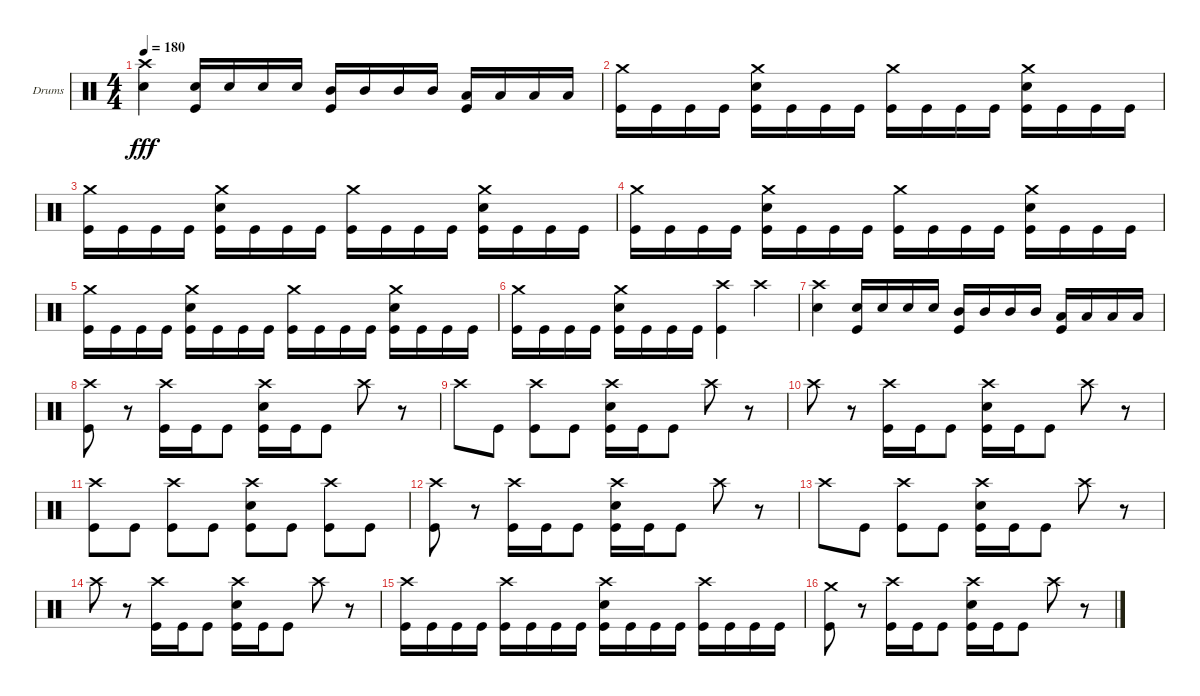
\bracketExtendMode groupsimilarinstruments
\firstSystemTrackNameOrientation horizontal
\otherSystemsTrackNameOrientation horizontal
\track ("Drumkit" "Drums") {instrument percussion}
\staff {score}
\articulation defaults
\ts (4 4)
\tempo 180
\clef neutral
\ks c
("Crash high (hit)" "Snare (hit) 2").4{dy fff} ("Snare (hit) 2" "Kick (hit)").16 "Snare (hit) 2".16 "Snare (hit) 2".16 "Snare (hit) 2".16 ("Mid Tom (hit)" "Kick (hit)").16 "Mid Tom (hit)".16 "Mid Tom (hit)".16 "Mid Tom (hit)".16 ("Low Tom (hit)" "Kick (hit)").16 "Low Tom (hit)".16 "Low Tom (hit)".16 "Low Tom (hit)".16 |
("Crash medium (hit)" "Kick (hit)").16 "Kick (hit)".16 "Kick (hit)".16 "Kick (hit)".16 ("Crash medium (hit)" "Snare (hit) 2" "Kick (hit)").16 "Kick (hit)".16 "Kick (hit)".16 "Kick (hit)".16 ("Crash medium (hit)" "Kick (hit)").16 "Kick (hit)".16 "Kick (hit)".16 "Kick (hit)".16 ("Crash medium (hit)" "Snare (hit) 2" "Kick (hit)").16 "Kick (hit)".16 "Kick (hit)".16 "Kick (hit)".16 |
("Crash medium (hit)" "Kick (hit)").16 "Kick (hit)".16 "Kick (hit)".16 "Kick (hit)".16 ("Crash medium (hit)" "Snare (hit) 2" "Kick (hit)").16 "Kick (hit)".16 "Kick (hit)".16 "Kick (hit)".16 ("Crash medium (hit)" "Kick (hit)").16 "Kick (hit)".16 "Kick (hit)".16 "Kick (hit)".16 ("Crash medium (hit)" "Snare (hit) 2" "Kick (hit)").16 "Kick (hit)".16 "Kick (hit)".16 "Kick (hit)".16 |
("Crash medium (hit)" "Kick (hit)").16 "Kick (hit)".16 "Kick (hit)".16 "Kick (hit)".16 ("Crash medium (hit)" "Snare (hit) 2" "Kick (hit)").16 "Kick (hit)".16 "Kick (hit)".16 "Kick (hit)".16 ("Crash medium (hit)" "Kick (hit)").16 "Kick (hit)".16 "Kick (hit)".16 "Kick (hit)".16 ("Crash medium (hit)" "Snare (hit) 2" "Kick (hit)").16 "Kick (hit)".16 "Kick (hit)".16 "Kick (hit)".16 |
("Crash medium (hit)" "Kick (hit)").16 "Kick (hit)".16 "Kick (hit)".16 "Kick (hit)".16 ("Crash medium (hit)" "Snare (hit) 2" "Kick (hit)").16 "Kick (hit)".16 "Kick (hit)".16 "Kick (hit)".16 ("Crash medium (hit)" "Kick (hit)").16 "Kick (hit)".16 "Kick (hit)".16 "Kick (hit)".16 ("Crash medium (hit)" "Snare (hit) 2" "Kick (hit)").16 "Kick (hit)".16 "Kick (hit)".16 "Kick (hit)".16 |
("Crash medium (hit)" "Kick (hit)").16 "Kick (hit)".16 "Kick (hit)".16 "Kick (hit)".16 ("Crash medium (hit)" "Snare (hit) 2" "Kick (hit)").16 "Kick (hit)".16 "Kick (hit)".16 "Kick (hit)".16 ("Crash high (hit)" "Kick (hit)").4 "Crash high (hit)".4 |
("Crash high (hit)" "Snare (hit) 2").4 ("Snare (hit) 2" "Kick (hit)").16 "Snare (hit) 2".16 "Snare (hit) 2".16 "Snare (hit) 2".16 ("Mid Tom (hit)" "Kick (hit)").16 "Mid Tom (hit)".16 "Mid Tom (hit)".16 "Mid Tom (hit)".16 ("Low Tom (hit)" "Kick (hit)").16 "Low Tom (hit)".16 "Low Tom (hit)".16 "Low Tom (hit)".16 |
("Crash high (hit)" "Kick (hit)").8 r.8 ("Crash high (hit)" "Kick (hit)").16 "Kick (hit)".16 "Kick (hit)".8 ("Crash high (hit)" "Snare (hit) 2" "Kick (hit)").16 "Kick (hit)".16 "Kick (hit)".8 "Crash high (hit)".8 r.8 |
"Crash high (hit)".8 "Kick (hit)".8 ("Crash high (hit)" "Kick (hit)").8 "Kick (hit)".8 ("Crash high (hit)" "Snare (hit) 2" "Kick (hit)").16 "Kick (hit)".16 "Kick (hit)".8 "Crash high (hit)".8 r.8 |
"Crash high (hit)".8 r.8 ("Crash high (hit)" "Kick (hit)").16 "Kick (hit)".16 "Kick (hit)".8 ("Crash high (hit)" "Snare (hit) 2" "Kick (hit)").16 "Kick (hit)".16 "Kick (hit)".8 "Crash high (hit)".8 r.8 |
("Crash high (hit)" "Kick (hit)").8 "Kick (hit)".8 ("Crash high (hit)" "Kick (hit)").8 "Kick (hit)".8 ("Crash high (hit)" "Snare (hit) 2" "Kick (hit)").8 "Kick (hit)".8 ("Crash high (hit)" "Kick (hit)").8 "Kick (hit)".8 |
("Crash high (hit)" "Kick (hit)").8 r.8 ("Crash high (hit)" "Kick (hit)").16 "Kick (hit)".16 "Kick (hit)".8 ("Crash high (hit)" "Snare (hit) 2" "Kick (hit)").16 "Kick (hit)".16 "Kick (hit)".8 "Crash high (hit)".8 r.8 |
"Crash high (hit)".8 "Kick (hit)".8 ("Crash high (hit)" "Kick (hit)").8 "Kick (hit)".8 ("Crash high (hit)" "Snare (hit) 2" "Kick (hit)").16 "Kick (hit)".16 "Kick (hit)".8 "Crash high (hit)".8 r.8 |
"Crash high (hit)".8 r.8 ("Crash high (hit)" "Kick (hit)").16 "Kick (hit)".16 "Kick (hit)".8 ("Crash high (hit)" "Snare (hit) 2" "Kick (hit)").16 "Kick (hit)".16 "Kick (hit)".8 "Crash high (hit)".8 r.8 |
("Crash high (hit)" "Kick (hit)").16 "Kick (hit)".16 "Kick (hit)".16 "Kick (hit)".16 ("Crash high (hit)" "Kick (hit)").16 "Kick (hit)".16 "Kick (hit)".16 "Kick (hit)".16 ("Crash high (hit)" "Snare (hit) 2" "Kick (hit)").16 "Kick (hit)".16 "Kick (hit)".16 "Kick (hit)".16 ("Crash high (hit)" "Kick (hit)").16 "Kick (hit)".16 "Kick (hit)".16 "Kick (hit)".16 |
("Crash medium (hit)" "Kick (hit)").8 r.8 ("Crash high (hit)" "Kick (hit)").16 "Kick (hit)".16 "Kick (hit)".8 ("Crash high (hit)" "Snare (hit) 2" "Kick (hit)").16 "Kick (hit)".16 "Kick (hit)".8 "Crash high (hit)".8 r.8
